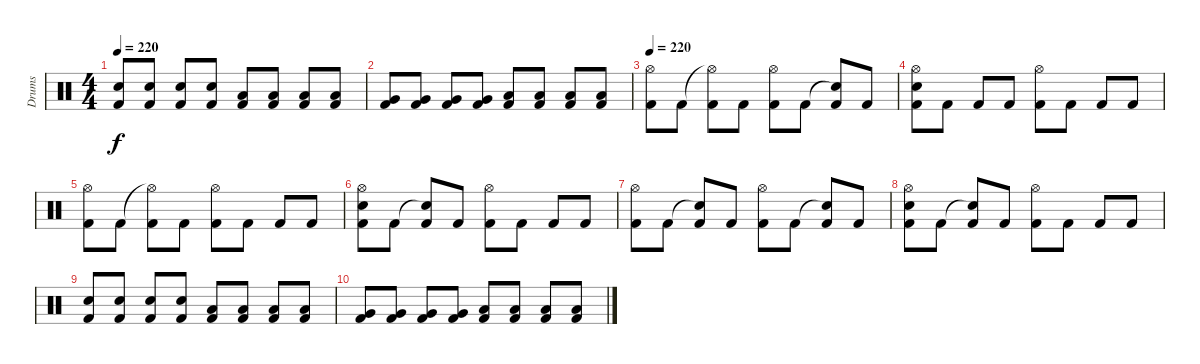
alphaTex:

\track ("Drums" "Drums") {instrument percussion}
\staff {score}
\articulation defaults
\ts (4 4)
\tempo 220
\clef neutral
\ks c
("Snare (hit) 2" "Kick (hit) 2").8{dy f} ("Snare (hit) 2" "Kick (hit) 2").8 ("Snare (hit) 2" "Kick (hit) 2").8 ("Snare (hit) 2" "Kick (hit) 2").8 ("Low Tom (hit)" "Kick (hit) 2").8 ("Low Tom (hit)" "Kick (hit) 2").8 ("Low Tom (hit)" "Kick (hit) 2").8 ("Low Tom (hit)" "Kick (hit) 2").8 |
("Very Low Tom (hit)" "Kick (hit) 2").8 ("Very Low Tom (hit)" "Kick (hit) 2").8 ("Very Low Tom (hit)" "Kick (hit) 2").8 ("Very Low Tom (hit)" "Kick (hit) 2").8 ("Low Floor Tom (hit)" "Kick (hit) 2").8 ("Low Floor Tom (hit)" "Kick (hit) 2").8 ("Low Floor Tom (hit)" "Kick (hit) 2").8 ("Low Floor Tom (hit)" "Kick (hit) 2").8 |
\tempo 250
\tempo 220
("Hi-Hat (open)" "Kick (hit) 2").8 "Kick (hit) 2".8 ("Hi-Hat (open)"{t} "Kick (hit) 2").8 "Kick (hit) 2".8 ("Hi-Hat (open)" "Kick (hit) 2").8 "Kick (hit) 2".8 ("Snare (hit)"{t} "Kick (hit) 2").8 "Kick (hit) 2".8 |
("Hi-Hat (open)" "Snare (hit) 2" "Kick (hit) 2").8 "Kick (hit) 2".8 "Kick (hit) 2".8 "Kick (hit) 2".8 ("Hi-Hat (open)" "Kick (hit) 2").8 "Kick (hit) 2".8 "Kick (hit) 2".8 "Kick (hit) 2".8 |
("Hi-Hat (open)" "Kick (hit) 2").8 "Kick (hit) 2".8 ("Hi-Hat (open)"{t} "Kick (hit) 2").8 "Kick (hit) 2".8 ("Hi-Hat (open)" "Kick (hit) 2").8 "Kick (hit) 2".8 "Kick (hit) 2".8 "Kick (hit) 2".8 |
("Hi-Hat (open)" "Snare (hit) 2" "Kick (hit) 2").8 "Kick (hit) 2".8 ("Snare (hit)"{t} "Kick (hit) 2").8 "Kick (hit) 2".8 ("Hi-Hat (open)" "Kick (hit) 2").8 "Kick (hit) 2".8 "Kick (hit) 2".8 "Kick (hit) 2".8 |
("Hi-Hat (open)" "Kick (hit) 2").8 "Kick (hit) 2".8 ("Snare (hit)"{t} "Kick (hit) 2").8 "Kick (hit) 2".8 ("Hi-Hat (open)" "Kick (hit) 2").8 "Kick (hit) 2".8 ("Snare (hit)"{t} "Kick (hit) 2").8 "Kick (hit) 2".8 |
("Hi-Hat (open)" "Snare (hit) 2" "Kick (hit) 2").8 "Kick (hit) 2".8 ("Snare (hit)"{t} "Kick (hit) 2").8 "Kick (hit) 2".8 ("Hi-Hat (open)" "Kick (hit) 2").8 "Kick (hit) 2".8 "Kick (hit) 2".8 "Kick (hit) 2".8 |
("Snare (hit) 2" "Kick (hit) 2").8 ("Snare (hit) 2" "Kick (hit) 2").8 ("Snare (hit) 2" "Kick (hit) 2").8 ("Snare (hit) 2" "Kick (hit) 2").8 ("Low Tom (hit)" "Kick (hit) 2").8 ("Low Tom (hit)" "Kick (hit) 2").8 ("Low Tom (hit)" "Kick (hit) 2").8 ("Low Tom (hit)" "Kick (hit) 2").8 |
("Very Low Tom (hit)" "Kick (hit) 2").8 ("Very Low Tom (hit)" "Kick (hit) 2").8 ("Very Low Tom (hit)" "Kick (hit) 2").8 ("Very Low Tom (hit)" "Kick (hit) 2").8 ("Low Floor Tom (hit)" "Kick (hit) 2").8 ("Low Floor Tom (hit)" "Kick (hit) 2").8 ("Low Floor Tom (hit)" "Kick (hit) 2").8 ("Low Floor Tom (hit)" "Kick (hit) 2").8
